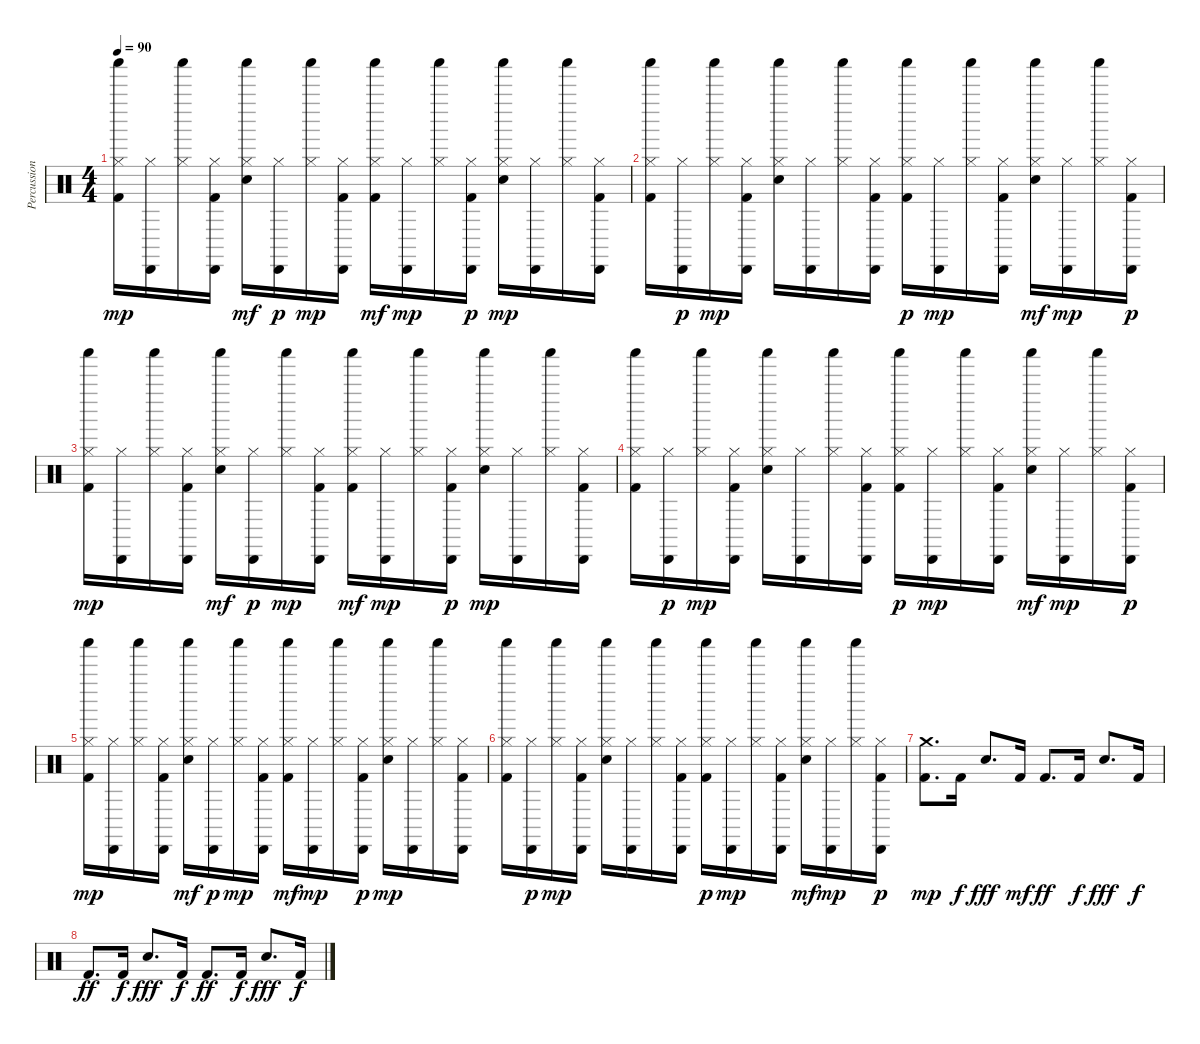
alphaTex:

\track ("Percussions" "Percussion") {instrument percussion}
\staff {score}
\articulation defaults
\ts (4 4)
\tempo 90
\clef neutral
\ks c
("Kick (hit) 2" "Hi-Hat (closed)" "Shaker (hit)").16{dy mp} ("Hi-Hat (closed)" "Cabasa (hit)").16 ("Hi-Hat (closed)" "Shaker (hit)").16 ("Kick (hit) 2" "Hi-Hat (closed)" "Cabasa (hit)").16 ("Electric Snare (hit)" "Hi-Hat (closed)" "Shaker (hit)").16{dy mf} ("Hi-Hat (closed)" "Cabasa (hit)").16{dy p} ("Hi-Hat (closed)" "Shaker (hit)").16{dy mp} ("Kick (hit) 2" "Hi-Hat (closed)" "Cabasa (hit)").16 ("Kick (hit) 2" "Hi-Hat (closed)" "Shaker (hit)").16{dy mf} ("Hi-Hat (closed)" "Cabasa (hit)").16{dy mp} ("Hi-Hat (closed)" "Shaker (hit)").16 ("Kick (hit) 2" "Hi-Hat (closed)" "Cabasa (hit)").16{dy p} ("Electric Snare (hit)" "Hi-Hat (closed)" "Shaker (hit)").16{dy mp} ("Hi-Hat (closed)" "Cabasa (hit)").16 ("Hi-Hat (closed)" "Shaker (hit)").16 ("Kick (hit) 2" "Hi-Hat (closed)" "Cabasa (hit)").16 |
("Kick (hit) 2" "Hi-Hat (closed)" "Shaker (hit)").16 ("Hi-Hat (closed)" "Cabasa (hit)").16{dy p} ("Hi-Hat (closed)" "Shaker (hit)").16{dy mp} ("Kick (hit) 2" "Hi-Hat (closed)" "Cabasa (hit)").16 ("Electric Snare (hit)" "Hi-Hat (closed)" "Shaker (hit)").16 ("Hi-Hat (closed)" "Cabasa (hit)").16 ("Hi-Hat (closed)" "Shaker (hit)").16 ("Kick (hit) 2" "Hi-Hat (closed)" "Cabasa (hit)").16 ("Kick (hit) 2" "Hi-Hat (closed)" "Shaker (hit)").16{dy p} ("Hi-Hat (closed)" "Cabasa (hit)").16{dy mp} ("Hi-Hat (closed)" "Shaker (hit)").16 ("Kick (hit) 2" "Hi-Hat (closed)" "Cabasa (hit)").16 ("Electric Snare (hit)" "Hi-Hat (closed)" "Shaker (hit)").16{dy mf} ("Hi-Hat (closed)" "Cabasa (hit)").16{dy mp} ("Hi-Hat (closed)" "Shaker (hit)").16 ("Kick (hit) 2" "Hi-Hat (closed)" "Cabasa (hit)").16{dy p} |
("Kick (hit) 2" "Hi-Hat (closed)" "Shaker (hit)").16{dy mp} ("Hi-Hat (closed)" "Cabasa (hit)").16 ("Hi-Hat (closed)" "Shaker (hit)").16 ("Kick (hit) 2" "Hi-Hat (closed)" "Cabasa (hit)").16 ("Electric Snare (hit)" "Hi-Hat (closed)" "Shaker (hit)").16{dy mf} ("Hi-Hat (closed)" "Cabasa (hit)").16{dy p} ("Hi-Hat (closed)" "Shaker (hit)").16{dy mp} ("Kick (hit) 2" "Hi-Hat (closed)" "Cabasa (hit)").16 ("Kick (hit) 2" "Hi-Hat (closed)" "Shaker (hit)").16{dy mf} ("Hi-Hat (closed)" "Cabasa (hit)").16{dy mp} ("Hi-Hat (closed)" "Shaker (hit)").16 ("Kick (hit) 2" "Hi-Hat (closed)" "Cabasa (hit)").16{dy p} ("Electric Snare (hit)" "Hi-Hat (closed)" "Shaker (hit)").16{dy mp} ("Hi-Hat (closed)" "Cabasa (hit)").16 ("Hi-Hat (closed)" "Shaker (hit)").16 ("Kick (hit) 2" "Hi-Hat (closed)" "Cabasa (hit)").16 |
("Kick (hit) 2" "Hi-Hat (closed)" "Shaker (hit)").16 ("Hi-Hat (closed)" "Cabasa (hit)").16{dy p} ("Hi-Hat (closed)" "Shaker (hit)").16{dy mp} ("Kick (hit) 2" "Hi-Hat (closed)" "Cabasa (hit)").16 ("Electric Snare (hit)" "Hi-Hat (closed)" "Shaker (hit)").16 ("Hi-Hat (closed)" "Cabasa (hit)").16 ("Hi-Hat (closed)" "Shaker (hit)").16 ("Kick (hit) 2" "Hi-Hat (closed)" "Cabasa (hit)").16 ("Kick (hit) 2" "Hi-Hat (closed)" "Shaker (hit)").16{dy p} ("Hi-Hat (closed)" "Cabasa (hit)").16{dy mp} ("Hi-Hat (closed)" "Shaker (hit)").16 ("Kick (hit) 2" "Hi-Hat (closed)" "Cabasa (hit)").16 ("Electric Snare (hit)" "Hi-Hat (closed)" "Shaker (hit)").16{dy mf} ("Hi-Hat (closed)" "Cabasa (hit)").16{dy mp} ("Hi-Hat (closed)" "Shaker (hit)").16 ("Kick (hit) 2" "Hi-Hat (closed)" "Cabasa (hit)").16{dy p} |
("Kick (hit) 2" "Hi-Hat (closed)" "Shaker (hit)").16{dy mp} ("Hi-Hat (closed)" "Cabasa (hit)").16 ("Hi-Hat (closed)" "Shaker (hit)").16 ("Kick (hit) 2" "Hi-Hat (closed)" "Cabasa (hit)").16 ("Electric Snare (hit)" "Hi-Hat (closed)" "Shaker (hit)").16{dy mf} ("Hi-Hat (closed)" "Cabasa (hit)").16{dy p} ("Hi-Hat (closed)" "Shaker (hit)").16{dy mp} ("Kick (hit) 2" "Hi-Hat (closed)" "Cabasa (hit)").16 ("Kick (hit) 2" "Hi-Hat (closed)" "Shaker (hit)").16{dy mf} ("Hi-Hat (closed)" "Cabasa (hit)").16{dy mp} ("Hi-Hat (closed)" "Shaker (hit)").16 ("Kick (hit) 2" "Hi-Hat (closed)" "Cabasa (hit)").16{dy p} ("Electric Snare (hit)" "Hi-Hat (closed)" "Shaker (hit)").16{dy mp} ("Hi-Hat (closed)" "Cabasa (hit)").16 ("Hi-Hat (closed)" "Shaker (hit)").16 ("Kick (hit) 2" "Hi-Hat (closed)" "Cabasa (hit)").16 |
("Kick (hit) 2" "Hi-Hat (closed)" "Shaker (hit)").16 ("Hi-Hat (closed)" "Cabasa (hit)").16{dy p} ("Hi-Hat (closed)" "Shaker (hit)").16{dy mp} ("Kick (hit) 2" "Hi-Hat (closed)" "Cabasa (hit)").16 ("Electric Snare (hit)" "Hi-Hat (closed)" "Shaker (hit)").16 ("Hi-Hat (closed)" "Cabasa (hit)").16 ("Hi-Hat (closed)" "Shaker (hit)").16 ("Kick (hit) 2" "Hi-Hat (closed)" "Cabasa (hit)").16 ("Kick (hit) 2" "Hi-Hat (closed)" "Shaker (hit)").16{dy p} ("Hi-Hat (closed)" "Cabasa (hit)").16{dy mp} ("Hi-Hat (closed)" "Shaker (hit)").16 ("Kick (hit) 2" "Hi-Hat (closed)" "Cabasa (hit)").16 ("Electric Snare (hit)" "Hi-Hat (closed)" "Shaker (hit)").16{dy mf} ("Hi-Hat (closed)" "Cabasa (hit)").16{dy mp} ("Hi-Hat (closed)" "Shaker (hit)").16 ("Kick (hit) 2" "Hi-Hat (closed)" "Cabasa (hit)").16{dy p} |
("Kick (hit) 2" "Crash medium (hit)").8{d dy mp} "Kick (hit) 2".16{dy f} "Electric Snare (hit)".8{d dy fff} "Kick (hit) 2".16{dy mf} "Kick (hit) 2".8{d dy ff} "Kick (hit) 2".16{dy f} "Electric Snare (hit)".8{d dy fff} "Kick (hit) 2".16{dy f} |
"Kick (hit) 2".8{d dy ff} "Kick (hit) 2".16{dy f} "Electric Snare (hit)".8{d dy fff} "Kick (hit) 2".16{dy f} "Kick (hit) 2".8{d dy ff} "Kick (hit) 2".16{dy f} "Electric Snare (hit)".8{d dy fff} "Kick (hit) 2".16{dy f}
